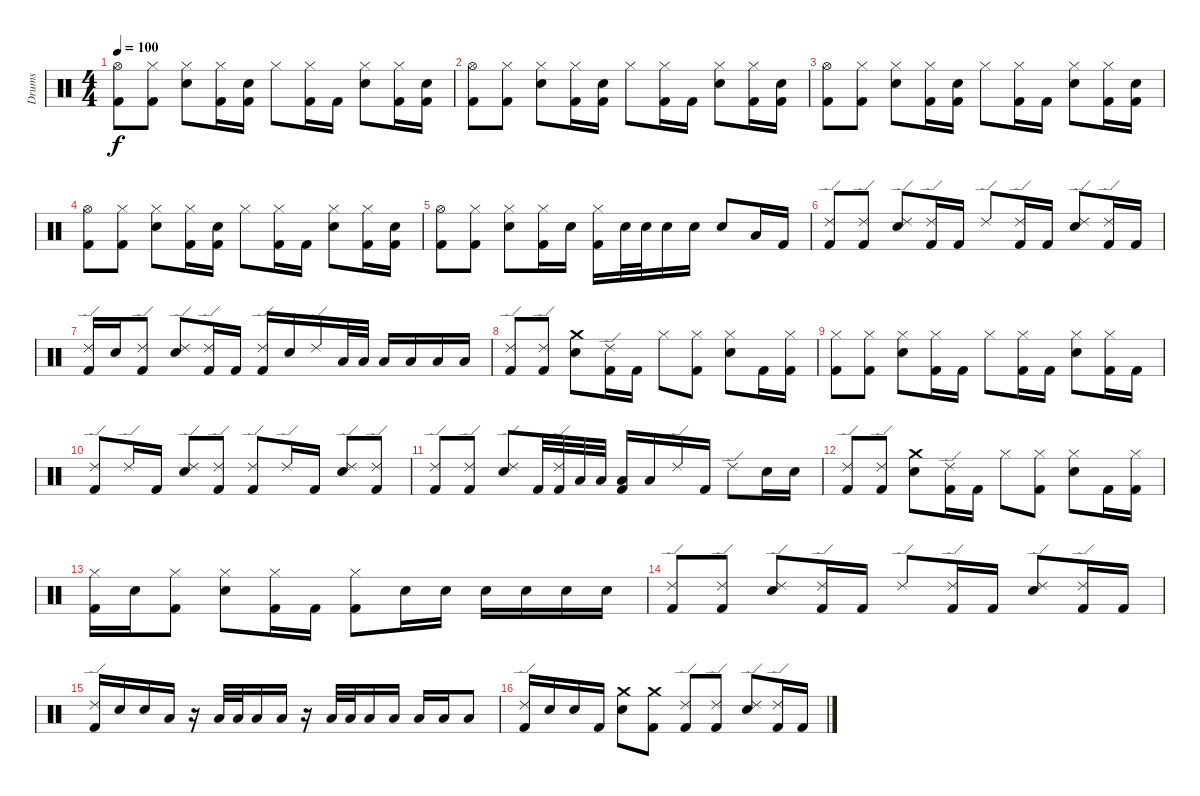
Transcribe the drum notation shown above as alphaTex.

\track ("Drums" "Drums") {instrument percussion}
\staff {score}
\articulation defaults
\ts (4 4)
\tempo 100
\clef neutral
\ks c
("Hi-Hat (open)" "Kick (hit) 2").8{dy f} ("Hi-Hat (closed)" "Kick (hit) 2").8 ("Hi-Hat (closed)" "Electric Snare (hit)").8 ("Hi-Hat (closed)" "Kick (hit) 2").16 ("Electric Snare (hit)" "Kick (hit) 2").16 "Hi-Hat (closed)".8 ("Hi-Hat (closed)" "Kick (hit) 2").16 "Kick (hit) 2".16 ("Hi-Hat (closed)" "Electric Snare (hit)").8 ("Hi-Hat (closed)" "Kick (hit) 2").16 ("Electric Snare (hit)" "Kick (hit) 2").16 |
("Hi-Hat (open)" "Kick (hit) 2").8 ("Hi-Hat (closed)" "Kick (hit) 2").8 ("Hi-Hat (closed)" "Electric Snare (hit)").8 ("Hi-Hat (closed)" "Kick (hit) 2").16 ("Electric Snare (hit)" "Kick (hit) 2").16 "Hi-Hat (closed)".8 ("Hi-Hat (closed)" "Kick (hit) 2").16 "Kick (hit) 2".16 ("Hi-Hat (closed)" "Electric Snare (hit)").8 ("Hi-Hat (closed)" "Kick (hit) 2").16 ("Electric Snare (hit)" "Kick (hit) 2").16 |
("Hi-Hat (open)" "Kick (hit) 2").8 ("Hi-Hat (closed)" "Kick (hit) 2").8 ("Hi-Hat (closed)" "Electric Snare (hit)").8 ("Hi-Hat (closed)" "Kick (hit) 2").16 ("Electric Snare (hit)" "Kick (hit) 2").16 "Hi-Hat (closed)".8 ("Hi-Hat (closed)" "Kick (hit) 2").16 "Kick (hit) 2".16 ("Hi-Hat (closed)" "Electric Snare (hit)").8 ("Hi-Hat (closed)" "Kick (hit) 2").16 ("Electric Snare (hit)" "Kick (hit) 2").16 |
("Hi-Hat (open)" "Kick (hit) 2").8 ("Hi-Hat (closed)" "Kick (hit) 2").8 ("Hi-Hat (closed)" "Electric Snare (hit)").8 ("Hi-Hat (closed)" "Kick (hit) 2").16 ("Electric Snare (hit)" "Kick (hit) 2").16 "Hi-Hat (closed)".8 ("Hi-Hat (closed)" "Kick (hit) 2").16 "Kick (hit) 2".16 ("Hi-Hat (closed)" "Electric Snare (hit)").8 ("Hi-Hat (closed)" "Kick (hit) 2").16 ("Electric Snare (hit)" "Kick (hit) 2").16 |
("Hi-Hat (open)" "Kick (hit) 2").8 ("Hi-Hat (closed)" "Kick (hit) 2").8 ("Hi-Hat (closed)" "Electric Snare (hit)").8 ("Hi-Hat (closed)" "Kick (hit) 2").16 "Electric Snare (hit)".16 ("Hi-Hat (closed)" "Kick (hit) 2").16 "Electric Snare (hit)".32 "Electric Snare (hit)".32 "Electric Snare (hit)".16 "Electric Snare (hit)".16 "Electric Snare (hit)".8 "Low Tom (hit)".16 "Kick (hit) 2".16 |
("Ride (edge) 2" "Kick (hit) 2").8 ("Ride (edge) 2" "Kick (hit) 2").8 ("Ride (edge) 2" "Electric Snare (hit)").8 ("Ride (edge) 2" "Kick (hit) 2").16 "Kick (hit) 2".16 "Ride (edge) 2".8 ("Ride (edge) 2" "Kick (hit) 2").16 "Kick (hit) 2".16 ("Ride (edge) 2" "Electric Snare (hit)").8 ("Ride (edge) 2" "Kick (hit) 2").16 "Kick (hit) 2".16 |
("Ride (edge) 2" "Kick (hit) 2").16 "Electric Snare (hit)".16 ("Ride (edge) 2" "Kick (hit) 2").8 ("Ride (edge) 2" "Electric Snare (hit)").8 ("Ride (edge) 2" "Kick (hit) 2").16 "Kick (hit) 2".16 ("Ride (edge) 2" "Kick (hit) 2").16 "Electric Snare (hit)".16 "Ride (edge) 2".16 "Low Tom (hit)".32 "Low Tom (hit)".32 "Low Floor Tom (hit)".16 "Low Floor Tom (hit)".16 "Low Floor Tom (hit)".16 "Low Floor Tom (hit)".16 |
("Ride (edge) 2" "Kick (hit) 2").8 ("Ride (edge) 2" "Kick (hit) 2").8 ("Crash medium (hit)" "Electric Snare (hit)").8 ("Ride (edge) 2" "Kick (hit) 2").16 "Kick (hit) 2".16 "Hi-Hat (closed)".8 ("Hi-Hat (closed)" "Kick (hit) 2").8 ("Hi-Hat (closed)" "Electric Snare (hit)").8 "Kick (hit) 2".16 ("Hi-Hat (closed)" "Kick (hit) 2").16 |
("Hi-Hat (closed)" "Kick (hit) 2").8 ("Hi-Hat (closed)" "Kick (hit) 2").8 ("Hi-Hat (closed)" "Electric Snare (hit)").8 ("Hi-Hat (closed)" "Kick (hit) 2").16 "Kick (hit) 2".16 "Hi-Hat (closed)".8 ("Hi-Hat (closed)" "Kick (hit) 2").16 "Kick (hit) 2".16 ("Hi-Hat (closed)" "Electric Snare (hit)").8 ("Hi-Hat (closed)" "Kick (hit) 2").16 "Kick (hit) 2".16 |
("Ride (edge) 2" "Kick (hit) 2").8 "Ride (edge) 2".16 "Kick (hit) 2".16 ("Ride (edge) 2" "Electric Snare (hit)").8 ("Ride (edge) 2" "Kick (hit) 2").8 ("Ride (edge) 2" "Kick (hit) 2").8 "Ride (edge) 2".16 "Kick (hit) 2".16 ("Ride (edge) 2" "Electric Snare (hit)").8 ("Ride (edge) 2" "Kick (hit) 2").8 |
("Ride (edge) 2" "Kick (hit) 2").8 ("Ride (edge) 2" "Kick (hit) 2").8 ("Ride (edge) 2" "Electric Snare (hit)").8 "Kick (hit) 2".32 ("Ride (edge) 2" "Kick (hit) 2").32 "Low Tom (hit)".32 "Low Tom (hit)".32 ("Low Tom (hit)" "Kick (hit) 2").16 "Low Floor Tom (hit)".16 "Ride (edge) 2".16 "Kick (hit) 2".16 "Ride (edge) 2".8 "Electric Snare (hit)".16 "Electric Snare (hit)".16 |
("Ride (edge) 2" "Kick (hit) 2").8 ("Ride (edge) 2" "Kick (hit) 2").8 ("Crash medium (hit)" "Electric Snare (hit)").8 ("Ride (edge) 2" "Kick (hit) 2").16 "Kick (hit) 2".16 "Hi-Hat (closed)".8 ("Hi-Hat (closed)" "Kick (hit) 2").8 ("Hi-Hat (closed)" "Electric Snare (hit)").8 "Kick (hit) 2".16 ("Hi-Hat (closed)" "Kick (hit) 2").16 |
("Hi-Hat (closed)" "Kick (hit) 2").16 "Electric Snare (hit)".16 ("Hi-Hat (closed)" "Kick (hit) 2").8 ("Hi-Hat (closed)" "Electric Snare (hit)").8 ("Hi-Hat (closed)" "Kick (hit) 2").16 "Kick (hit) 2".16 ("Hi-Hat (closed)" "Kick (hit) 2").8 "Electric Snare (hit)".16 "Electric Snare (hit)".16 "Electric Snare (hit)".16 "Electric Snare (hit)".16 "Electric Snare (hit)".16 "Electric Snare (hit)".16 |
("Ride (edge) 2" "Kick (hit) 2").8 ("Ride (edge) 2" "Kick (hit) 2").8 ("Ride (edge) 2" "Electric Snare (hit)").8 ("Ride (edge) 2" "Kick (hit) 2").16 "Kick (hit) 2".16 "Ride (edge) 2".8 ("Ride (edge) 2" "Kick (hit) 2").16 "Kick (hit) 2".16 ("Ride (edge) 2" "Electric Snare (hit)").8 ("Ride (edge) 2" "Kick (hit) 2").16 "Kick (hit) 2".16 |
("Ride (edge) 2" "Kick (hit) 2").16 "Electric Snare (hit)".16 "Electric Snare (hit)".16 "Low Tom (hit)".16 r.16 "Low Tom (hit)".32 "Low Tom (hit)".32 "Low Floor Tom (hit)".16 "Low Floor Tom (hit)".16 r.16 "Low Floor Tom (hit)".32 "Low Floor Tom (hit)".32 "Low Floor Tom (hit)".16 "Low Floor Tom (hit)".16 "Low Floor Tom (hit)".16 "Low Floor Tom (hit)".16 "Low Floor Tom (hit)".8 |
("Ride (edge) 2" "Kick (hit) 2").16 "Electric Snare (hit)".16 "Electric Snare (hit)".16 "Kick (hit) 2".16 ("Crash medium (hit)" "Electric Snare (hit)").8 ("Crash medium (hit)" "Kick (hit) 2").8 ("Ride (edge) 2" "Kick (hit) 2").8 ("Ride (edge) 2" "Kick (hit) 2").8 ("Ride (edge) 2" "Electric Snare (hit)").8 ("Ride (edge) 2" "Kick (hit) 2").16 "Kick (hit) 2".16
